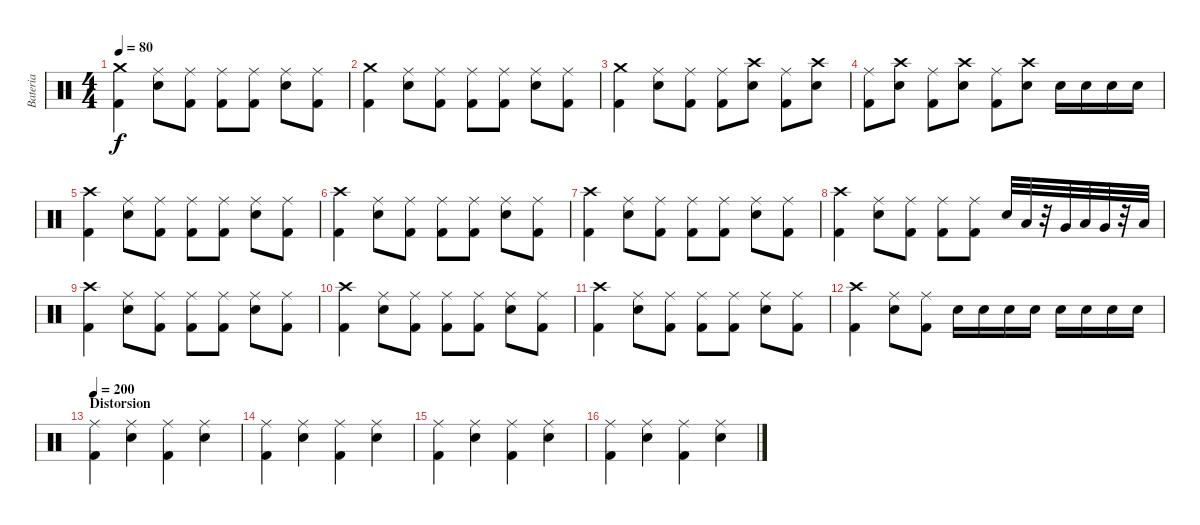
\track ("Bateria" "Bateria") {instrument percussion}
\staff {score}
\articulation defaults
\ts (4 4)
\tempo 80
\clef neutral
\ks c
("Crash medium (hit)" "Kick (hit) 2").4{dy f} ("Ride (middle)" "Snare (hit) 2").8 ("Ride (middle)" "Kick (hit) 2").8 ("Ride (middle)" "Kick (hit) 2").8 ("Ride (middle)" "Kick (hit) 2").8 ("Ride (middle)" "Snare (hit) 2").8 ("Ride (middle)" "Kick (hit) 2").8 |
("Crash medium (hit)" "Kick (hit) 2").4 ("Ride (middle)" "Snare (hit) 2").8 ("Ride (middle)" "Kick (hit) 2").8 ("Ride (middle)" "Kick (hit) 2").8 ("Ride (middle)" "Kick (hit) 2").8 ("Ride (middle)" "Snare (hit) 2").8 ("Ride (middle)" "Kick (hit) 2").8 |
("Crash medium (hit)" "Kick (hit) 2").4 ("Ride (middle)" "Snare (hit) 2").8 ("Ride (middle)" "Kick (hit) 2").8 ("Ride (middle)" "Kick (hit) 2").8 ("Crash high (hit)" "Snare (hit) 2").8 ("Ride (middle)" "Kick (hit) 2").8 ("Crash high (hit)" "Snare (hit) 2").8 |
("Ride (middle)" "Kick (hit) 2").8 ("Crash high (hit)" "Snare (hit) 2").8 ("Ride (middle)" "Kick (hit) 2").8 ("Crash high (hit)" "Snare (hit) 2").8 ("Ride (middle)" "Kick (hit) 2").8 ("Crash high (hit)" "Snare (hit) 2").8 "Snare (hit) 2".16 "Snare (hit) 2".16 "Snare (hit) 2".16 "Snare (hit) 2".16 |
("Crash high (hit)" "Kick (hit) 2").4 ("Ride (middle)" "Snare (hit) 2").8 ("Ride (middle)" "Kick (hit) 2").8 ("Ride (middle)" "Kick (hit) 2").8 ("Ride (middle)" "Kick (hit) 2").8 ("Ride (middle)" "Snare (hit) 2").8 ("Ride (middle)" "Kick (hit) 2").8 |
("Crash high (hit)" "Kick (hit) 2").4 ("Ride (middle)" "Snare (hit) 2").8 ("Ride (middle)" "Kick (hit) 2").8 ("Ride (middle)" "Kick (hit) 2").8 ("Ride (middle)" "Kick (hit) 2").8 ("Ride (middle)" "Snare (hit) 2").8 ("Ride (middle)" "Kick (hit) 2").8 |
("Crash high (hit)" "Kick (hit) 2").4 ("Ride (middle)" "Snare (hit) 2").8 ("Ride (middle)" "Kick (hit) 2").8 ("Ride (middle)" "Kick (hit) 2").8 ("Ride (middle)" "Kick (hit) 2").8 ("Ride (middle)" "Snare (hit) 2").8 ("Ride (middle)" "Kick (hit) 2").8 |
("Crash high (hit)" "Kick (hit) 2").4 ("Ride (middle)" "Snare (hit) 2").8 ("Ride (middle)" "Kick (hit) 2").8 ("Ride (middle)" "Kick (hit) 2").8 ("Ride (middle)" "Kick (hit) 2").8 "Snare (hit) 2".32 "Low Tom (hit)".32 r.32 "Very Low Tom (hit)".32 "Low Tom (hit)".32 "Very Low Tom (hit)".32 r.32 "Low Floor Tom (hit)".32 |
("Crash high (hit)" "Kick (hit) 2").4 ("Ride (middle)" "Snare (hit) 2").8 ("Ride (middle)" "Kick (hit) 2").8 ("Ride (middle)" "Kick (hit) 2").8 ("Ride (middle)" "Kick (hit) 2").8 ("Ride (middle)" "Snare (hit) 2").8 ("Ride (middle)" "Kick (hit) 2").8 |
("Crash high (hit)" "Kick (hit) 2").4 ("Ride (middle)" "Snare (hit) 2").8 ("Ride (middle)" "Kick (hit) 2").8 ("Ride (middle)" "Kick (hit) 2").8 ("Ride (middle)" "Kick (hit) 2").8 ("Ride (middle)" "Snare (hit) 2").8 ("Ride (middle)" "Kick (hit) 2").8 |
("Crash high (hit)" "Kick (hit) 2").4 ("Ride (middle)" "Snare (hit) 2").8 ("Ride (middle)" "Kick (hit) 2").8 ("Ride (middle)" "Kick (hit) 2").8 ("Ride (middle)" "Kick (hit) 2").8 ("Ride (middle)" "Snare (hit) 2").8 ("Ride (middle)" "Kick (hit) 2").8 |
("Crash high (hit)" "Kick (hit) 2").4 ("Ride (middle)" "Snare (hit) 2").8 ("Ride (middle)" "Kick (hit) 2").8 "Snare (hit) 2".16 "Snare (hit) 2".16 "Snare (hit) 2".16 "Snare (hit) 2".16 "Snare (hit) 2".16 "Snare (hit) 2".16 "Snare (hit) 2".16 "Snare (hit) 2".16 |
\section ("" "Distorsion")
\tempo 200
("Ride (middle)" "Kick (hit) 2").4 ("Ride (middle)" "Snare (hit) 2").4 ("Ride (middle)" "Kick (hit) 2").4 ("Ride (middle)" "Snare (hit) 2").4 |
("Ride (middle)" "Kick (hit) 2").4 ("Ride (middle)" "Snare (hit) 2").4 ("Ride (middle)" "Kick (hit) 2").4 ("Ride (middle)" "Snare (hit) 2").4 |
("Ride (middle)" "Kick (hit) 2").4 ("Ride (middle)" "Snare (hit) 2").4 ("Ride (middle)" "Kick (hit) 2").4 ("Ride (middle)" "Snare (hit) 2").4 |
("Ride (middle)" "Kick (hit) 2").4 ("Ride (middle)" "Snare (hit) 2").4 ("Ride (middle)" "Kick (hit) 2").4 ("Ride (middle)" "Snare (hit) 2").4
